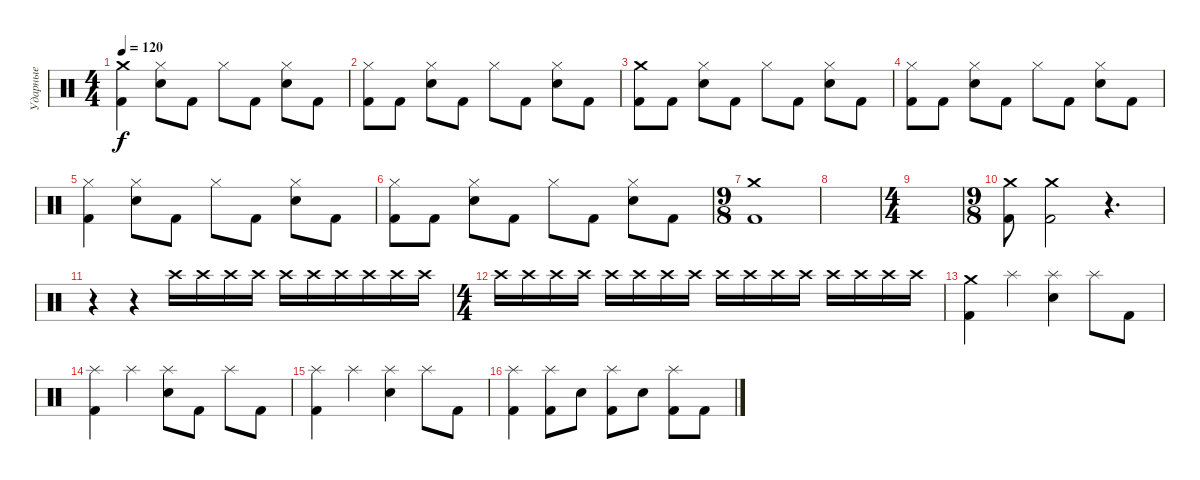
\track ("Ударные" "Ударные") {instrument percussion}
\staff {score}
\articulation defaults
\ts (4 4)
\tempo 120
\clef neutral
\ks c
("Crash medium (hit)" "Kick (hit) 2").4{dy f} ("Hi-Hat (closed)" "Electric Snare (hit)").8 "Kick (hit) 2".8 "Hi-Hat (closed)".8 "Kick (hit) 2".8 ("Hi-Hat (closed)" "Electric Snare (hit)").8 "Kick (hit) 2".8 |
("Hi-Hat (closed)" "Kick (hit) 2").8 "Kick (hit) 2".8 ("Hi-Hat (closed)" "Electric Snare (hit)").8 "Kick (hit) 2".8 "Hi-Hat (closed)".8 "Kick (hit) 2".8 ("Hi-Hat (closed)" "Electric Snare (hit)").8 "Kick (hit) 2".8 |
("Crash medium (hit)" "Kick (hit) 2").8 "Kick (hit) 2".8 ("Hi-Hat (closed)" "Electric Snare (hit)").8 "Kick (hit) 2".8 "Hi-Hat (closed)".8 "Kick (hit) 2".8 ("Hi-Hat (closed)" "Electric Snare (hit)").8 "Kick (hit) 2".8 |
("Hi-Hat (closed)" "Kick (hit) 2").8 "Kick (hit) 2".8 ("Hi-Hat (closed)" "Electric Snare (hit)").8 "Kick (hit) 2".8 "Hi-Hat (closed)".8 "Kick (hit) 2".8 ("Hi-Hat (closed)" "Electric Snare (hit)").8 "Kick (hit) 2".8 |
("Hi-Hat (closed)" "Kick (hit) 2").4 ("Hi-Hat (closed)" "Electric Snare (hit)").8 "Kick (hit) 2".8 "Hi-Hat (closed)".8 "Kick (hit) 2".8 ("Hi-Hat (closed)" "Electric Snare (hit)").8 "Kick (hit) 2".8 |
("Hi-Hat (closed)" "Kick (hit) 2").8 "Kick (hit) 2".8 ("Hi-Hat (closed)" "Electric Snare (hit)").8 "Kick (hit) 2".8 "Hi-Hat (closed)".8 "Kick (hit) 2".8 ("Hi-Hat (closed)" "Electric Snare (hit)").8 "Kick (hit) 2".8 |
\ts (9 8)
("Crash medium (hit)" "Kick (hit) 2").1 |
|
\ts (4 4)
|
\ts (9 8)
("Crash medium (hit)" "Kick (hit) 2").8 ("Crash medium (hit)" "Kick (hit) 2").2 r.4{d} |
r.4 r.4 "Crash high (hit)".16{volume 2} "Crash high (hit)".16{volume 13} "Crash high (hit)".16 "Crash high (hit)".16 "Crash high (hit)".16 "Crash high (hit)".16 "Crash high (hit)".16 "Crash high (hit)".16 "Crash high (hit)".16 "Crash high (hit)".16 |
\ts (4 4)
"Crash high (hit)".16 "Crash high (hit)".16 "Crash high (hit)".16 "Crash high (hit)".16 "Crash high (hit)".16 "Crash high (hit)".16 "Crash high (hit)".16 "Crash high (hit)".16 "Crash high (hit)".16 "Crash high (hit)".16 "Crash high (hit)".16 "Crash high (hit)".16 "Crash high (hit)".16 "Crash high (hit)".16 "Crash high (hit)".16 "Crash high (hit)".16 |
("Crash medium (hit)" "Kick (hit) 2").4 "Splash (hit)".4 ("Splash (hit)" "Electric Snare (hit)").4 "Splash (hit)".8 "Kick (hit) 2".8 |
("Splash (hit)" "Kick (hit) 2").4 "Splash (hit)".4 ("Splash (hit)" "Electric Snare (hit)").8 "Kick (hit) 2".8 "Splash (hit)".8 "Kick (hit) 2".8 |
("Splash (hit)" "Kick (hit) 2").4 "Splash (hit)".4 ("Splash (hit)" "Electric Snare (hit)").4 "Splash (hit)".8 "Kick (hit) 2".8 |
("Splash (hit)" "Kick (hit) 2").4 ("Splash (hit)" "Kick (hit) 2").8 "Electric Snare (hit)".8 ("Splash (hit)" "Kick (hit) 2").8 "Electric Snare (hit)".8 ("Splash (hit)" "Kick (hit) 2").8 "Kick (hit) 2".8
